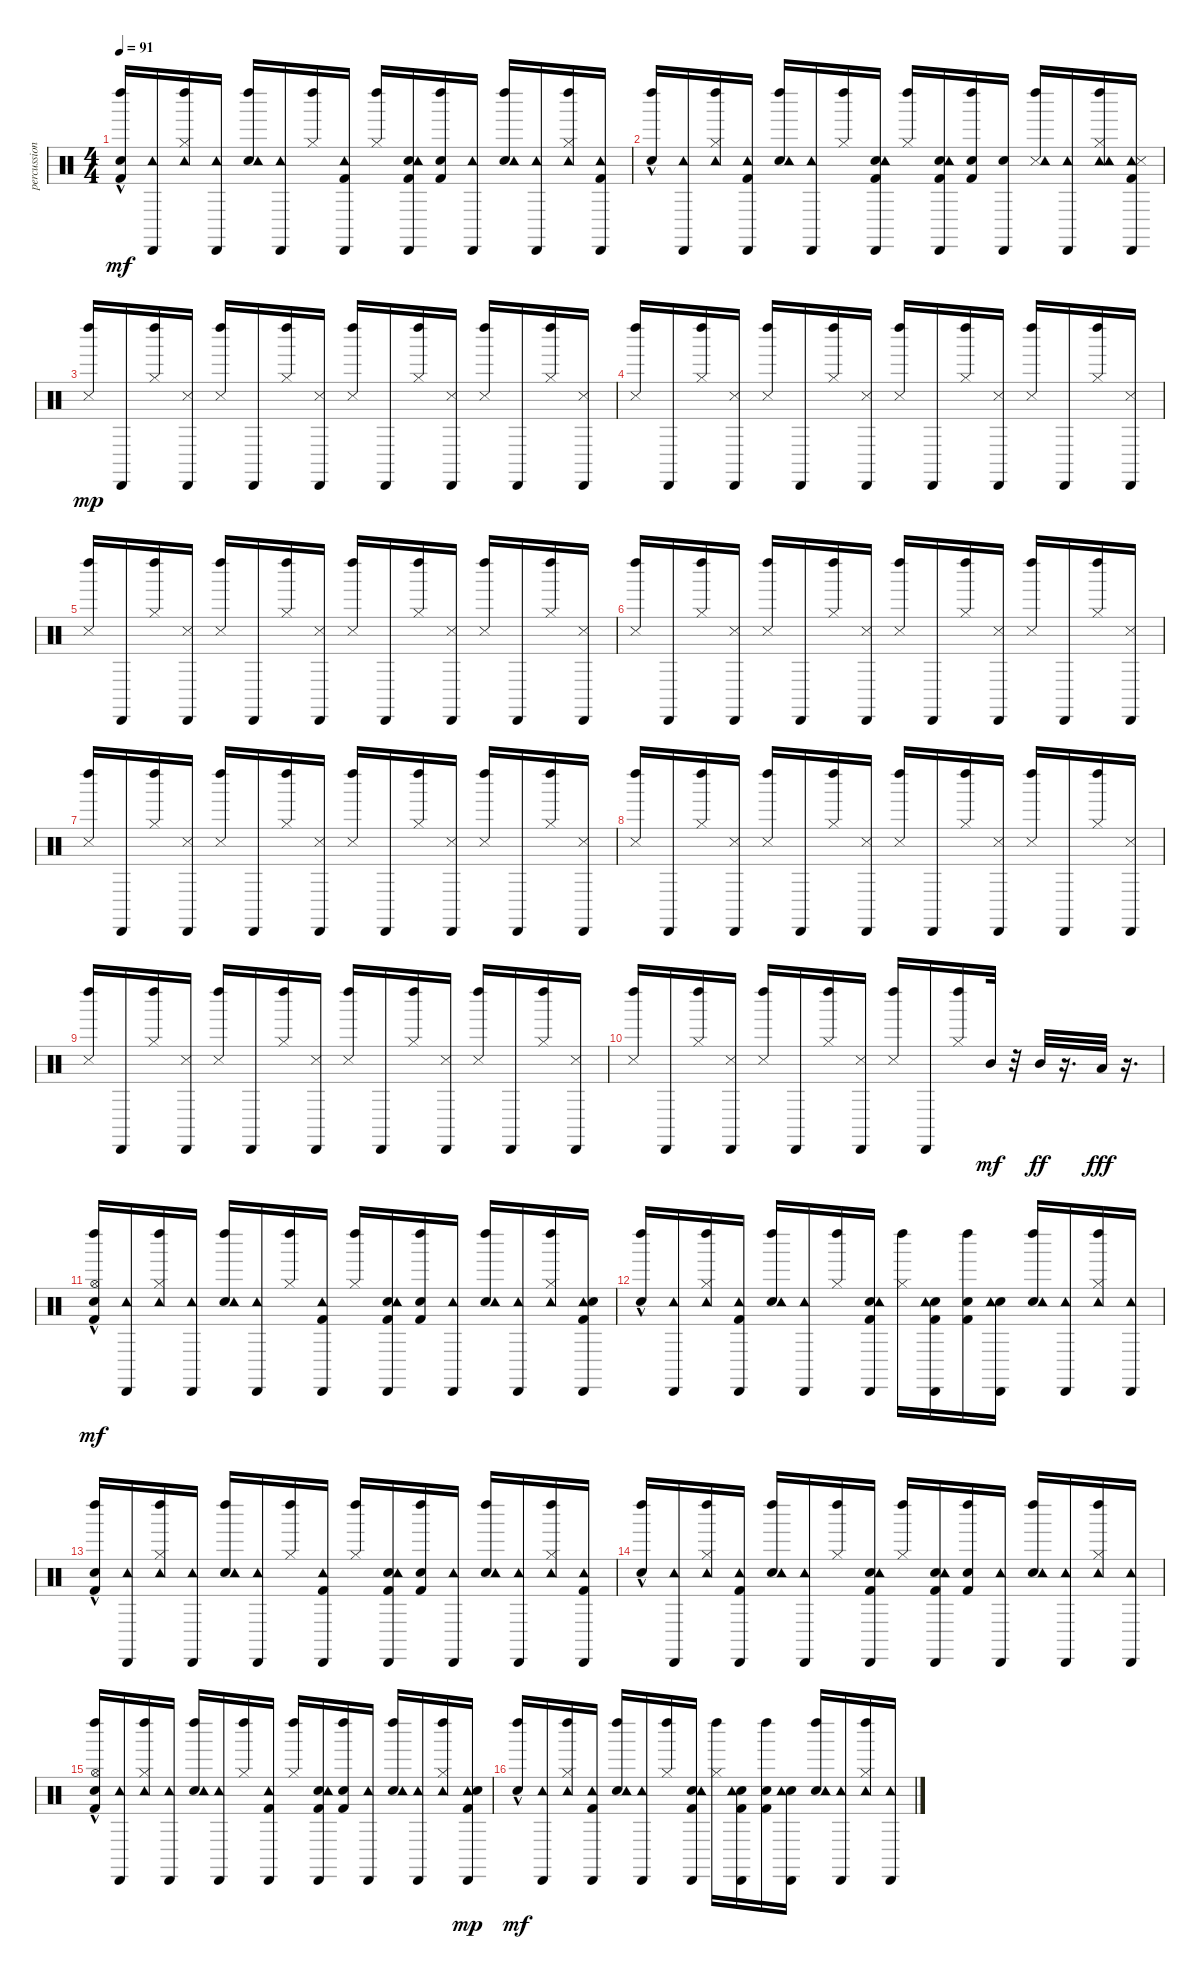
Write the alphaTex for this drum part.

\track ("percussion" "percussion") {instrument percussion}
\staff {score}
\articulation defaults
\ts (4 4)
\tempo 91
\clef neutral
\ks c
("Kick (hit) 2" "Electric Snare (hit)"{hac} "Left Maraca (hit)").16{dy mf} ("Cabasa (hit)" "Tambourine (hit)").16 ("Hi-Hat (closed)" "Left Maraca (hit)" "Tambourine (hit)").16 ("Cabasa (hit)" "Tambourine (hit)").16 ("Electric Snare (hit)" "Left Maraca (hit)" "Tambourine (hit)").16 ("Cabasa (hit)" "Tambourine (hit)").16 ("Hi-Hat (closed)" "Left Maraca (hit)").16 ("Kick (hit) 2" "Cabasa (hit)" "Tambourine (hit)").16 ("Hi-Hat (closed)" "Left Maraca (hit)").16 ("Kick (hit) 2" "Electric Snare (hit)" "Cabasa (hit)" "Tambourine (hit)").16 ("Electric Snare (hit)" "Left Maraca (hit)" "Kick (hit) 2").16 ("Cabasa (hit)" "Tambourine (hit)").16 ("Electric Snare (hit)" "Left Maraca (hit)" "Tambourine (hit)").16 ("Cabasa (hit)" "Tambourine (hit)").16 ("Tambourine (hit)" "Hi-Hat (closed)" "Left Maraca (hit)").16 ("Kick (hit) 2" "Tambourine (hit)" "Cabasa (hit)").16 |
("Left Maraca (hit)" "Electric Snare (hit)"{hac}).16 ("Cabasa (hit)" "Tambourine (hit)").16 ("Hi-Hat (closed)" "Left Maraca (hit)" "Tambourine (hit)").16 ("Cabasa (hit)" "Tambourine (hit)" "Kick (hit) 2").16 ("Electric Snare (hit)" "Left Maraca (hit)" "Tambourine (hit)").16 ("Cabasa (hit)" "Tambourine (hit)").16 ("Hi-Hat (closed)" "Left Maraca (hit)").16 ("Electric Snare (hit)" "Cabasa (hit)" "Tambourine (hit)" "Kick (hit) 2").16 ("Hi-Hat (closed)" "Left Maraca (hit)").16 ("Electric Snare (hit)" "Cabasa (hit)" "Tambourine (hit)" "Kick (hit) 2").16 ("Electric Snare (hit)" "Left Maraca (hit)" "Kick (hit) 2").16 ("Electric Snare (hit)" "Cabasa (hit)").16 ("Metronome (hit)" "Left Maraca (hit)" "Tambourine (hit)").16 ("Cabasa (hit)" "Tambourine (hit)").16 ("Left Maraca (hit)" "Tambourine (hit)" "Hi-Hat (closed)" "Tambourine (hit)").16 ("Cabasa (hit)" "Tambourine (hit)" "Kick (hit) 2" "Metronome (hit)").16 |
("Metronome (hit)" "Left Maraca (hit)").16{dy mp volume 12} "Cabasa (hit)".16 ("Hi-Hat (closed)" "Left Maraca (hit)").16 ("Metronome (hit)" "Cabasa (hit)").16 ("Metronome (hit)" "Left Maraca (hit)").16 "Cabasa (hit)".16 ("Hi-Hat (closed)" "Left Maraca (hit)").16 ("Metronome (hit)" "Cabasa (hit)").16 ("Metronome (hit)" "Left Maraca (hit)").16 "Cabasa (hit)".16 ("Hi-Hat (closed)" "Left Maraca (hit)").16 ("Metronome (hit)" "Cabasa (hit)").16 ("Metronome (hit)" "Left Maraca (hit)").16 "Cabasa (hit)".16 ("Hi-Hat (closed)" "Left Maraca (hit)").16 ("Metronome (hit)" "Cabasa (hit)").16 |
("Metronome (hit)" "Left Maraca (hit)").16 "Cabasa (hit)".16 ("Hi-Hat (closed)" "Left Maraca (hit)").16 ("Metronome (hit)" "Cabasa (hit)").16 ("Metronome (hit)" "Left Maraca (hit)").16 "Cabasa (hit)".16 ("Hi-Hat (closed)" "Left Maraca (hit)").16 ("Metronome (hit)" "Cabasa (hit)").16 ("Metronome (hit)" "Left Maraca (hit)").16 "Cabasa (hit)".16 ("Hi-Hat (closed)" "Left Maraca (hit)").16 ("Metronome (hit)" "Cabasa (hit)").16 ("Metronome (hit)" "Left Maraca (hit)").16 "Cabasa (hit)".16 ("Hi-Hat (closed)" "Left Maraca (hit)").16 ("Metronome (hit)" "Cabasa (hit)").16 |
("Left Maraca (hit)" "Metronome (hit)").16 "Cabasa (hit)".16 ("Hi-Hat (closed)" "Left Maraca (hit)").16 ("Metronome (hit)" "Cabasa (hit)").16 ("Metronome (hit)" "Left Maraca (hit)").16 "Cabasa (hit)".16 ("Hi-Hat (closed)" "Left Maraca (hit)").16 ("Metronome (hit)" "Cabasa (hit)").16 ("Metronome (hit)" "Left Maraca (hit)").16 "Cabasa (hit)".16 ("Hi-Hat (closed)" "Left Maraca (hit)").16 ("Metronome (hit)" "Cabasa (hit)").16 ("Metronome (hit)" "Left Maraca (hit)").16 "Cabasa (hit)".16 ("Left Maraca (hit)" "Hi-Hat (closed)").16 ("Cabasa (hit)" "Metronome (hit)").16 |
("Metronome (hit)" "Left Maraca (hit)").16 "Cabasa (hit)".16 ("Hi-Hat (closed)" "Left Maraca (hit)").16 ("Metronome (hit)" "Cabasa (hit)").16 ("Metronome (hit)" "Left Maraca (hit)").16 "Cabasa (hit)".16 ("Hi-Hat (closed)" "Left Maraca (hit)").16 ("Metronome (hit)" "Cabasa (hit)").16 ("Metronome (hit)" "Left Maraca (hit)").16 "Cabasa (hit)".16 ("Hi-Hat (closed)" "Left Maraca (hit)").16 ("Metronome (hit)" "Cabasa (hit)").16 ("Metronome (hit)" "Left Maraca (hit)").16 "Cabasa (hit)".16 ("Hi-Hat (closed)" "Left Maraca (hit)").16 ("Metronome (hit)" "Cabasa (hit)").16 |
("Left Maraca (hit)" "Metronome (hit)").16 "Cabasa (hit)".16 ("Hi-Hat (closed)" "Left Maraca (hit)").16 ("Metronome (hit)" "Cabasa (hit)").16 ("Metronome (hit)" "Left Maraca (hit)").16 "Cabasa (hit)".16 ("Hi-Hat (closed)" "Left Maraca (hit)").16 ("Metronome (hit)" "Cabasa (hit)").16 ("Metronome (hit)" "Left Maraca (hit)").16 "Cabasa (hit)".16 ("Hi-Hat (closed)" "Left Maraca (hit)").16 ("Metronome (hit)" "Cabasa (hit)").16 ("Metronome (hit)" "Left Maraca (hit)").16 "Cabasa (hit)".16 ("Left Maraca (hit)" "Hi-Hat (closed)").16 ("Cabasa (hit)" "Metronome (hit)").16 |
("Left Maraca (hit)" "Metronome (hit)").16 "Cabasa (hit)".16 ("Hi-Hat (closed)" "Left Maraca (hit)").16 ("Metronome (hit)" "Cabasa (hit)").16 ("Metronome (hit)" "Left Maraca (hit)").16{volume 12} "Cabasa (hit)".16 ("Hi-Hat (closed)" "Left Maraca (hit)").16 ("Metronome (hit)" "Cabasa (hit)").16 ("Metronome (hit)" "Left Maraca (hit)").16 "Cabasa (hit)".16 ("Hi-Hat (closed)" "Left Maraca (hit)").16 ("Metronome (hit)" "Cabasa (hit)").16 ("Metronome (hit)" "Left Maraca (hit)").16 "Cabasa (hit)".16 ("Left Maraca (hit)" "Hi-Hat (closed)").16 ("Cabasa (hit)" "Metronome (hit)").16 |
("Left Maraca (hit)" "Metronome (hit)").16 "Cabasa (hit)".16 ("Hi-Hat (closed)" "Left Maraca (hit)").16 ("Metronome (hit)" "Cabasa (hit)").16 ("Metronome (hit)" "Left Maraca (hit)").16 "Cabasa (hit)".16 ("Hi-Hat (closed)" "Left Maraca (hit)").16 ("Metronome (hit)" "Cabasa (hit)").16 ("Metronome (hit)" "Left Maraca (hit)").16 "Cabasa (hit)".16 ("Hi-Hat (closed)" "Left Maraca (hit)").16 ("Metronome (hit)" "Cabasa (hit)").16 ("Metronome (hit)" "Left Maraca (hit)").16 "Cabasa (hit)".16 ("Left Maraca (hit)" "Hi-Hat (closed)").16 ("Cabasa (hit)" "Metronome (hit)").16 |
("Metronome (hit)" "Left Maraca (hit)").16 "Cabasa (hit)".16 ("Hi-Hat (closed)" "Left Maraca (hit)").16 ("Metronome (hit)" "Cabasa (hit)").16 ("Metronome (hit)" "Left Maraca (hit)").16 "Cabasa (hit)".16 ("Hi-Hat (closed)" "Left Maraca (hit)").16 ("Metronome (hit)" "Cabasa (hit)").16 ("Metronome (hit)" "Left Maraca (hit)").16 "Cabasa (hit)".16 ("Hi-Hat (closed)" "Left Maraca (hit)").16 "Mid Tom (hit)".32{dy mf volume 13} r.32 "Mid Tom (hit)".32{dy ff} r.16{d} "Low Floor Tom (hit)".32{dy fff} r.16{d} |
("Hi-Hat (open)" "Electric Snare (hit)"{hac} "Kick (hit) 2" "Left Maraca (hit)").16{dy mf volume 14} ("Cabasa (hit)" "Tambourine (hit)").16 ("Hi-Hat (closed)" "Left Maraca (hit)" "Tambourine (hit)").16 ("Cabasa (hit)" "Tambourine (hit)").16 ("Electric Snare (hit)" "Left Maraca (hit)" "Tambourine (hit)").16 ("Cabasa (hit)" "Tambourine (hit)").16 ("Hi-Hat (closed)" "Left Maraca (hit)").16 ("Kick (hit) 2" "Cabasa (hit)" "Tambourine (hit)").16 ("Hi-Hat (closed)" "Left Maraca (hit)").16 ("Electric Snare (hit)" "Kick (hit) 2" "Cabasa (hit)" "Tambourine (hit)").16 ("Electric Snare (hit)" "Kick (hit) 2" "Left Maraca (hit)").16 ("Cabasa (hit)" "Tambourine (hit)").16 ("Electric Snare (hit)" "Left Maraca (hit)" "Tambourine (hit)").16 ("Cabasa (hit)" "Tambourine (hit)").16 ("Tambourine (hit)" "Hi-Hat (closed)" "Left Maraca (hit)").16 ("Tambourine (hit)" "Electric Snare (hit)" "Kick (hit) 2" "Cabasa (hit)").16 |
("Left Maraca (hit)" "Electric Snare (hit)"{hac}).16 ("Tambourine (hit)" "Cabasa (hit)").16 ("Hi-Hat (closed)" "Tambourine (hit)" "Left Maraca (hit)").16 ("Tambourine (hit)" "Cabasa (hit)" "Kick (hit) 2").16 ("Electric Snare (hit)" "Tambourine (hit)" "Left Maraca (hit)").16 ("Tambourine (hit)" "Cabasa (hit)").16 ("Hi-Hat (closed)" "Left Maraca (hit)").16 ("Electric Snare (hit)" "Tambourine (hit)" "Cabasa (hit)" "Kick (hit) 2").16 ("Hi-Hat (closed)" "Left Maraca (hit)").16 ("Electric Snare (hit)" "Tambourine (hit)" "Cabasa (hit)" "Kick (hit) 2").16 ("Electric Snare (hit)" "Left Maraca (hit)" "Kick (hit) 2").16 ("Electric Snare (hit)" "Tambourine (hit)" "Cabasa (hit)").16 ("Electric Snare (hit)" "Tambourine (hit)" "Left Maraca (hit)").16 ("Tambourine (hit)" "Cabasa (hit)").16 ("Left Maraca (hit)" "Tambourine (hit)" "Hi-Hat (closed)").16 ("Cabasa (hit)" "Tambourine (hit)").16 |
("Left Maraca (hit)" "Kick (hit) 2" "Electric Snare (hit)"{hac}).16 ("Tambourine (hit)" "Cabasa (hit)").16 ("Hi-Hat (closed)" "Tambourine (hit)" "Left Maraca (hit)").16 ("Tambourine (hit)" "Cabasa (hit)").16 ("Electric Snare (hit)" "Tambourine (hit)" "Left Maraca (hit)").16 ("Tambourine (hit)" "Cabasa (hit)").16 ("Hi-Hat (closed)" "Left Maraca (hit)").16 ("Kick (hit) 2" "Tambourine (hit)" "Cabasa (hit)").16 ("Hi-Hat (closed)" "Left Maraca (hit)").16 ("Kick (hit) 2" "Electric Snare (hit)" "Tambourine (hit)" "Cabasa (hit)").16 ("Electric Snare (hit)" "Left Maraca (hit)" "Kick (hit) 2").16 ("Tambourine (hit)" "Cabasa (hit)").16 ("Electric Snare (hit)" "Tambourine (hit)" "Left Maraca (hit)").16 ("Tambourine (hit)" "Cabasa (hit)").16 ("Left Maraca (hit)" "Tambourine (hit)" "Hi-Hat (closed)").16 ("Cabasa (hit)" "Kick (hit) 2" "Tambourine (hit)").16 |
("Left Maraca (hit)" "Electric Snare (hit)"{hac}).16 ("Cabasa (hit)" "Tambourine (hit)").16 ("Hi-Hat (closed)" "Left Maraca (hit)" "Tambourine (hit)").16 ("Cabasa (hit)" "Tambourine (hit)" "Kick (hit) 2").16 ("Electric Snare (hit)" "Left Maraca (hit)" "Tambourine (hit)").16 ("Cabasa (hit)" "Tambourine (hit)").16 ("Hi-Hat (closed)" "Left Maraca (hit)").16 ("Electric Snare (hit)" "Cabasa (hit)" "Tambourine (hit)" "Kick (hit) 2").16 ("Hi-Hat (closed)" "Left Maraca (hit)").16 ("Electric Snare (hit)" "Cabasa (hit)" "Tambourine (hit)" "Kick (hit) 2").16 ("Electric Snare (hit)" "Left Maraca (hit)" "Kick (hit) 2").16 ("Cabasa (hit)" "Tambourine (hit)").16 ("Electric Snare (hit)" "Left Maraca (hit)" "Tambourine (hit)").16 ("Cabasa (hit)" "Tambourine (hit)").16 ("Left Maraca (hit)" "Tambourine (hit)" "Hi-Hat (closed)").16 ("Cabasa (hit)" "Tambourine (hit)").16 |
("Left Maraca (hit)" "Kick (hit) 2" "Hi-Hat (open)" "Electric Snare (hit)"{hac}).16 ("Tambourine (hit)" "Cabasa (hit)").16 ("Hi-Hat (closed)" "Tambourine (hit)" "Left Maraca (hit)").16 ("Tambourine (hit)" "Cabasa (hit)").16 ("Electric Snare (hit)" "Tambourine (hit)" "Left Maraca (hit)").16 ("Tambourine (hit)" "Cabasa (hit)").16 ("Hi-Hat (closed)" "Left Maraca (hit)").16 ("Kick (hit) 2" "Tambourine (hit)" "Cabasa (hit)").16 ("Hi-Hat (closed)" "Left Maraca (hit)").16 ("Kick (hit) 2" "Electric Snare (hit)" "Tambourine (hit)" "Cabasa (hit)").16 ("Kick (hit) 2" "Electric Snare (hit)" "Left Maraca (hit)").16 ("Tambourine (hit)" "Cabasa (hit)").16 ("Electric Snare (hit)" "Tambourine (hit)" "Left Maraca (hit)").16 ("Tambourine (hit)" "Cabasa (hit)").16 ("Left Maraca (hit)" "Tambourine (hit)" "Hi-Hat (closed)").16 ("Cabasa (hit)" "Kick (hit) 2" "Tambourine (hit)" "Electric Snare (hit)").16{dy mp} |
("Electric Snare (hit)"{hac} "Left Maraca (hit)").16{dy mf} ("Tambourine (hit)" "Cabasa (hit)").16 ("Hi-Hat (closed)" "Tambourine (hit)" "Left Maraca (hit)").16 ("Tambourine (hit)" "Cabasa (hit)" "Kick (hit) 2").16 ("Electric Snare (hit)" "Tambourine (hit)" "Left Maraca (hit)").16 ("Tambourine (hit)" "Cabasa (hit)").16 ("Hi-Hat (closed)" "Left Maraca (hit)").16 ("Electric Snare (hit)" "Tambourine (hit)" "Cabasa (hit)" "Kick (hit) 2").16 ("Hi-Hat (closed)" "Left Maraca (hit)").16 ("Electric Snare (hit)" "Tambourine (hit)" "Cabasa (hit)" "Kick (hit) 2").16 ("Electric Snare (hit)" "Left Maraca (hit)" "Kick (hit) 2").16 ("Electric Snare (hit)" "Tambourine (hit)" "Cabasa (hit)").16 ("Electric Snare (hit)" "Tambourine (hit)" "Left Maraca (hit)").16 ("Tambourine (hit)" "Cabasa (hit)").16 ("Tambourine (hit)" "Hi-Hat (closed)" "Left Maraca (hit)").16 ("Tambourine (hit)" "Cabasa (hit)").16
